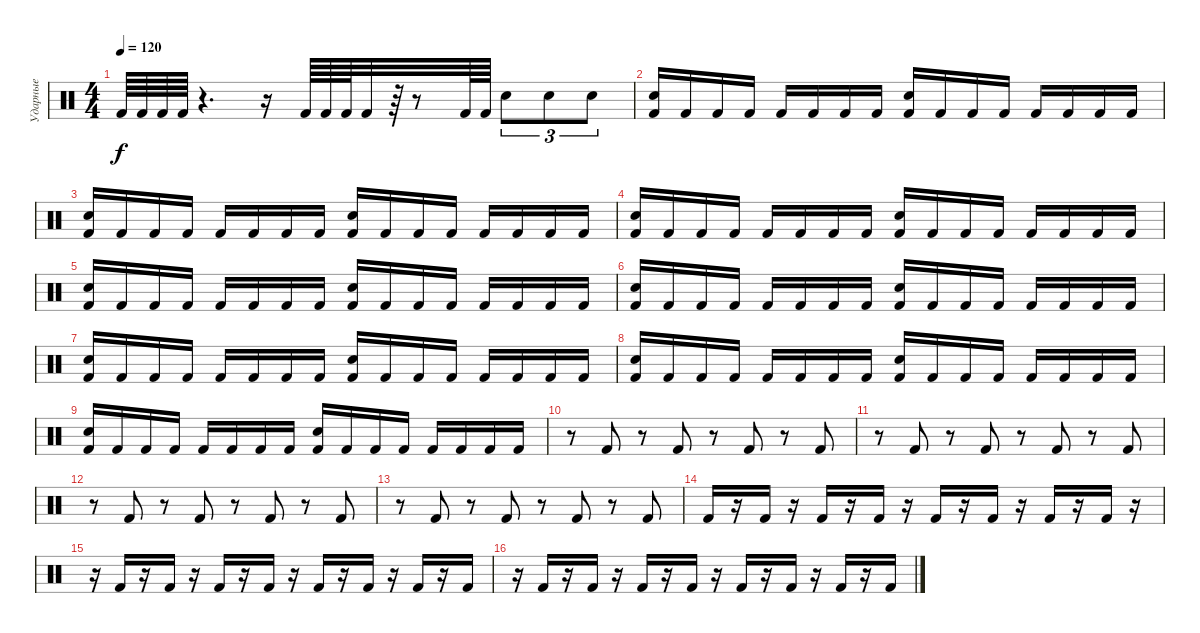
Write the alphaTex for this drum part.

\track ("Ударные" "Ударные") {instrument percussion}
\staff {score}
\articulation defaults
\ts (4 4)
\tempo 120
\clef neutral
\ks c "Kick (hit) 2".64{dy f} "Kick (hit) 2".64 "Kick (hit) 2".64 "Kick (hit) 2".64
r.4{d} r.16 "Kick (hit) 2".64 "Kick (hit) 2".64 "Kick (hit) 2".64 "Kick (hit) 2".32 r.64 r.8 "Kick (hit) 2".64 "Kick (hit) 2".64 "Electric Snare (hit)".8{tu (3 2)} "Electric Snare (hit)".8{tu (3 2)} "Electric Snare (hit)".8{tu (3 2)} |
("Electric Snare (hit)" "Kick (hit) 2").16 "Kick (hit) 2".16 "Kick (hit) 2".16 "Kick (hit) 2".16 "Kick (hit) 2".16 "Kick (hit) 2".16 "Kick (hit) 2".16 "Kick (hit) 2".16 ("Electric Snare (hit)" "Kick (hit) 2").16 "Kick (hit) 2".16 "Kick (hit) 2".16 "Kick (hit) 2".16 "Kick (hit) 2".16 "Kick (hit) 2".16 "Kick (hit) 2".16 "Kick (hit) 2".16 |
("Electric Snare (hit)" "Kick (hit) 2").16 "Kick (hit) 2".16 "Kick (hit) 2".16 "Kick (hit) 2".16 "Kick (hit) 2".16 "Kick (hit) 2".16 "Kick (hit) 2".16 "Kick (hit) 2".16 ("Electric Snare (hit)" "Kick (hit) 2").16 "Kick (hit) 2".16 "Kick (hit) 2".16 "Kick (hit) 2".16 "Kick (hit) 2".16 "Kick (hit) 2".16 "Kick (hit) 2".16 "Kick (hit) 2".16 |
("Electric Snare (hit)" "Kick (hit) 2").16 "Kick (hit) 2".16 "Kick (hit) 2".16 "Kick (hit) 2".16 "Kick (hit) 2".16 "Kick (hit) 2".16 "Kick (hit) 2".16 "Kick (hit) 2".16 ("Electric Snare (hit)" "Kick (hit) 2").16 "Kick (hit) 2".16 "Kick (hit) 2".16 "Kick (hit) 2".16 "Kick (hit) 2".16 "Kick (hit) 2".16 "Kick (hit) 2".16 "Kick (hit) 2".16 |
("Electric Snare (hit)" "Kick (hit) 2").16 "Kick (hit) 2".16 "Kick (hit) 2".16 "Kick (hit) 2".16 "Kick (hit) 2".16 "Kick (hit) 2".16 "Kick (hit) 2".16 "Kick (hit) 2".16 ("Electric Snare (hit)" "Kick (hit) 2").16 "Kick (hit) 2".16 "Kick (hit) 2".16 "Kick (hit) 2".16 "Kick (hit) 2".16 "Kick (hit) 2".16 "Kick (hit) 2".16 "Kick (hit) 2".16 |
("Electric Snare (hit)" "Kick (hit) 2").16 "Kick (hit) 2".16 "Kick (hit) 2".16 "Kick (hit) 2".16 "Kick (hit) 2".16 "Kick (hit) 2".16 "Kick (hit) 2".16 "Kick (hit) 2".16 ("Electric Snare (hit)" "Kick (hit) 2").16 "Kick (hit) 2".16 "Kick (hit) 2".16 "Kick (hit) 2".16 "Kick (hit) 2".16 "Kick (hit) 2".16 "Kick (hit) 2".16 "Kick (hit) 2".16 |
("Electric Snare (hit)" "Kick (hit) 2").16 "Kick (hit) 2".16 "Kick (hit) 2".16 "Kick (hit) 2".16 "Kick (hit) 2".16 "Kick (hit) 2".16 "Kick (hit) 2".16 "Kick (hit) 2".16 ("Electric Snare (hit)" "Kick (hit) 2").16 "Kick (hit) 2".16 "Kick (hit) 2".16 "Kick (hit) 2".16 "Kick (hit) 2".16 "Kick (hit) 2".16 "Kick (hit) 2".16 "Kick (hit) 2".16 |
("Electric Snare (hit)" "Kick (hit) 2").16 "Kick (hit) 2".16 "Kick (hit) 2".16 "Kick (hit) 2".16 "Kick (hit) 2".16 "Kick (hit) 2".16 "Kick (hit) 2".16 "Kick (hit) 2".16 ("Electric Snare (hit)" "Kick (hit) 2").16 "Kick (hit) 2".16 "Kick (hit) 2".16 "Kick (hit) 2".16 "Kick (hit) 2".16 "Kick (hit) 2".16 "Kick (hit) 2".16 "Kick (hit) 2".16 |
("Electric Snare (hit)" "Kick (hit) 2").16 "Kick (hit) 2".16 "Kick (hit) 2".16 "Kick (hit) 2".16 "Kick (hit) 2".16 "Kick (hit) 2".16 "Kick (hit) 2".16 "Kick (hit) 2".16 ("Electric Snare (hit)" "Kick (hit) 2").16 "Kick (hit) 2".16 "Kick (hit) 2".16 "Kick (hit) 2".16 "Kick (hit) 2".16 "Kick (hit) 2".16 "Kick (hit) 2".16 "Kick (hit) 2".16 |
r.8 "Kick (hit) 2".8 r.8 "Kick (hit) 2".8 r.8 "Kick (hit) 2".8 r.8 "Kick (hit) 2".8 |
r.8 "Kick (hit) 2".8 r.8 "Kick (hit) 2".8 r.8 "Kick (hit) 2".8 r.8 "Kick (hit) 2".8 |
r.8 "Kick (hit) 2".8 r.8 "Kick (hit) 2".8 r.8 "Kick (hit) 2".8 r.8 "Kick (hit) 2".8 |
r.8 "Kick (hit) 2".8 r.8 "Kick (hit) 2".8 r.8 "Kick (hit) 2".8 r.8 "Kick (hit) 2".8 |
"Kick (hit) 2".16{volume 1} r.16 "Kick (hit) 2".16 r.16 "Kick (hit) 2".16 r.16 "Kick (hit) 2".16 r.16 "Kick (hit) 2".16 r.16 "Kick (hit) 2".16 r.16 "Kick (hit) 2".16 r.16 "Kick (hit) 2".16 r.16 |
r.16 "Kick (hit) 2".16 r.16 "Kick (hit) 2".16 r.16 "Kick (hit) 2".16 r.16 "Kick (hit) 2".16 r.16 "Kick (hit) 2".16 r.16 "Kick (hit) 2".16 r.16 "Kick (hit) 2".16 r.16 "Kick (hit) 2".16 |
r.16 "Kick (hit) 2".16{volume 2} r.16 "Kick (hit) 2".16{volume 3} r.16 "Kick (hit) 2".16{volume 4} r.16 "Kick (hit) 2".16{volume 5} r.16 "Kick (hit) 2".16{volume 6} r.16 "Kick (hit) 2".16{volume 7} r.16 "Kick (hit) 2".16{volume 8} r.16 "Kick (hit) 2".16{volume 9}
